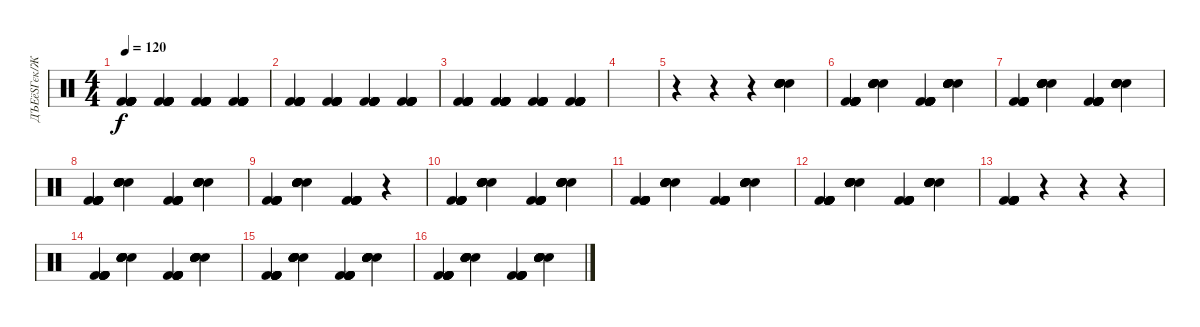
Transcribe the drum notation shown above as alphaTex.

\track ("ДЪЕёЅГєк/ЖК" "ДЪЕёЅГєк/Ж") {instrument percussion}
\staff {score}
\articulation defaults
\ts (4 4)
\tempo 120
\clef neutral
\ks c
("Kick (hit) 2" "Kick (hit) 2" "Kick (hit) 2" "Kick (hit) 2" "Kick (hit) 2" "Kick (hit) 2").4{dy f} ("Kick (hit) 2" "Kick (hit) 2" "Kick (hit) 2" "Kick (hit) 2" "Kick (hit) 2" "Kick (hit) 2").4 ("Kick (hit) 2" "Kick (hit) 2" "Kick (hit) 2" "Kick (hit) 2" "Kick (hit) 2" "Kick (hit) 2").4 ("Kick (hit) 2" "Kick (hit) 2" "Kick (hit) 2" "Kick (hit) 2" "Kick (hit) 2" "Kick (hit) 2").4 |
("Kick (hit) 2" "Kick (hit) 2" "Kick (hit) 2" "Kick (hit) 2" "Kick (hit) 2" "Kick (hit) 2").4 ("Kick (hit) 2" "Kick (hit) 2" "Kick (hit) 2" "Kick (hit) 2" "Kick (hit) 2" "Kick (hit) 2").4 ("Kick (hit) 2" "Kick (hit) 2" "Kick (hit) 2" "Kick (hit) 2" "Kick (hit) 2" "Kick (hit) 2").4 ("Kick (hit) 2" "Kick (hit) 2" "Kick (hit) 2" "Kick (hit) 2" "Kick (hit) 2" "Kick (hit) 2").4 |
("Kick (hit) 2" "Kick (hit) 2" "Kick (hit) 2" "Kick (hit) 2" "Kick (hit) 2" "Kick (hit) 2").4 ("Kick (hit) 2" "Kick (hit) 2" "Kick (hit) 2" "Kick (hit) 2" "Kick (hit) 2" "Kick (hit) 2").4 ("Kick (hit) 2" "Kick (hit) 2" "Kick (hit) 2" "Kick (hit) 2" "Kick (hit) 2" "Kick (hit) 2").4 ("Kick (hit) 2" "Kick (hit) 2" "Kick (hit) 2" "Kick (hit) 2" "Kick (hit) 2" "Kick (hit) 2").4 |
|
r.4 r.4 r.4 ("Hand Clap (hit)" "Hand Clap (hit)" "Hand Clap (hit)" "Hand Clap (hit)" "Hand Clap (hit)" "Hand Clap (hit)").4 |
("Kick (hit) 2" "Kick (hit) 2" "Kick (hit) 2" "Kick (hit) 2" "Kick (hit) 2" "Kick (hit) 2").4 ("Hand Clap (hit)" "Hand Clap (hit)" "Hand Clap (hit)" "Hand Clap (hit)" "Hand Clap (hit)" "Hand Clap (hit)").4 ("Kick (hit) 2" "Kick (hit) 2" "Kick (hit) 2" "Kick (hit) 2" "Kick (hit) 2" "Kick (hit) 2").4 ("Hand Clap (hit)" "Hand Clap (hit)" "Hand Clap (hit)" "Hand Clap (hit)" "Hand Clap (hit)" "Hand Clap (hit)").4 |
("Kick (hit) 2" "Kick (hit) 2" "Kick (hit) 2" "Kick (hit) 2" "Kick (hit) 2" "Kick (hit) 2").4 ("Hand Clap (hit)" "Hand Clap (hit)" "Hand Clap (hit)" "Hand Clap (hit)" "Hand Clap (hit)" "Hand Clap (hit)").4 ("Kick (hit) 2" "Kick (hit) 2" "Kick (hit) 2" "Kick (hit) 2" "Kick (hit) 2" "Kick (hit) 2").4 ("Hand Clap (hit)" "Hand Clap (hit)" "Hand Clap (hit)" "Hand Clap (hit)" "Hand Clap (hit)" "Hand Clap (hit)").4 |
("Kick (hit) 2" "Kick (hit) 2" "Kick (hit) 2" "Kick (hit) 2" "Kick (hit) 2" "Kick (hit) 2").4 ("Hand Clap (hit)" "Hand Clap (hit)" "Hand Clap (hit)" "Hand Clap (hit)" "Hand Clap (hit)" "Hand Clap (hit)").4 ("Kick (hit) 2" "Kick (hit) 2" "Kick (hit) 2" "Kick (hit) 2" "Kick (hit) 2" "Kick (hit) 2").4 ("Hand Clap (hit)" "Hand Clap (hit)" "Hand Clap (hit)" "Hand Clap (hit)" "Hand Clap (hit)" "Hand Clap (hit)").4 |
("Kick (hit) 2" "Kick (hit) 2" "Kick (hit) 2" "Kick (hit) 2" "Kick (hit) 2" "Kick (hit) 2").4 ("Hand Clap (hit)" "Hand Clap (hit)" "Hand Clap (hit)" "Hand Clap (hit)" "Hand Clap (hit)" "Hand Clap (hit)").4 ("Kick (hit) 2" "Kick (hit) 2" "Kick (hit) 2" "Kick (hit) 2" "Kick (hit) 2" "Kick (hit) 2").4 r.4 |
("Kick (hit) 2" "Kick (hit) 2" "Kick (hit) 2" "Kick (hit) 2" "Kick (hit) 2" "Kick (hit) 2").4 ("Hand Clap (hit)" "Hand Clap (hit)" "Hand Clap (hit)" "Hand Clap (hit)" "Hand Clap (hit)" "Hand Clap (hit)").4 ("Kick (hit) 2" "Kick (hit) 2" "Kick (hit) 2" "Kick (hit) 2" "Kick (hit) 2" "Kick (hit) 2").4 ("Hand Clap (hit)" "Hand Clap (hit)" "Hand Clap (hit)" "Hand Clap (hit)" "Hand Clap (hit)" "Hand Clap (hit)").4 |
("Kick (hit) 2" "Kick (hit) 2" "Kick (hit) 2" "Kick (hit) 2" "Kick (hit) 2" "Kick (hit) 2").4 ("Hand Clap (hit)" "Hand Clap (hit)" "Hand Clap (hit)" "Hand Clap (hit)" "Hand Clap (hit)" "Hand Clap (hit)").4 ("Kick (hit) 2" "Kick (hit) 2" "Kick (hit) 2" "Kick (hit) 2" "Kick (hit) 2" "Kick (hit) 2").4 ("Hand Clap (hit)" "Hand Clap (hit)" "Hand Clap (hit)" "Hand Clap (hit)" "Hand Clap (hit)" "Hand Clap (hit)").4 |
("Kick (hit) 2" "Kick (hit) 2" "Kick (hit) 2" "Kick (hit) 2" "Kick (hit) 2" "Kick (hit) 2").4 ("Hand Clap (hit)" "Hand Clap (hit)" "Hand Clap (hit)" "Hand Clap (hit)" "Hand Clap (hit)" "Hand Clap (hit)").4 ("Kick (hit) 2" "Kick (hit) 2" "Kick (hit) 2" "Kick (hit) 2" "Kick (hit) 2" "Kick (hit) 2").4 ("Hand Clap (hit)" "Hand Clap (hit)" "Hand Clap (hit)" "Hand Clap (hit)" "Hand Clap (hit)" "Hand Clap (hit)").4 |
("Kick (hit) 2" "Kick (hit) 2" "Kick (hit) 2" "Kick (hit) 2" "Kick (hit) 2" "Kick (hit) 2").4 r.4 r.4 r.4 |
("Kick (hit) 2" "Kick (hit) 2" "Kick (hit) 2" "Kick (hit) 2" "Kick (hit) 2" "Kick (hit) 2").4 ("Hand Clap (hit)" "Hand Clap (hit)" "Hand Clap (hit)" "Hand Clap (hit)" "Hand Clap (hit)" "Hand Clap (hit)").4 ("Kick (hit) 2" "Kick (hit) 2" "Kick (hit) 2" "Kick (hit) 2" "Kick (hit) 2" "Kick (hit) 2").4 ("Hand Clap (hit)" "Hand Clap (hit)" "Hand Clap (hit)" "Hand Clap (hit)" "Hand Clap (hit)" "Hand Clap (hit)").4 |
("Kick (hit) 2" "Kick (hit) 2" "Kick (hit) 2" "Kick (hit) 2" "Kick (hit) 2" "Kick (hit) 2").4 ("Hand Clap (hit)" "Hand Clap (hit)" "Hand Clap (hit)" "Hand Clap (hit)" "Hand Clap (hit)" "Hand Clap (hit)").4 ("Kick (hit) 2" "Kick (hit) 2" "Kick (hit) 2" "Kick (hit) 2" "Kick (hit) 2" "Kick (hit) 2").4 ("Hand Clap (hit)" "Hand Clap (hit)" "Hand Clap (hit)" "Hand Clap (hit)" "Hand Clap (hit)" "Hand Clap (hit)").4 |
("Kick (hit) 2" "Kick (hit) 2" "Kick (hit) 2" "Kick (hit) 2" "Kick (hit) 2" "Kick (hit) 2").4 ("Hand Clap (hit)" "Hand Clap (hit)" "Hand Clap (hit)" "Hand Clap (hit)" "Hand Clap (hit)" "Hand Clap (hit)").4 ("Kick (hit) 2" "Kick (hit) 2" "Kick (hit) 2" "Kick (hit) 2" "Kick (hit) 2" "Kick (hit) 2").4 ("Hand Clap (hit)" "Hand Clap (hit)" "Hand Clap (hit)" "Hand Clap (hit)" "Hand Clap (hit)" "Hand Clap (hit)").4
